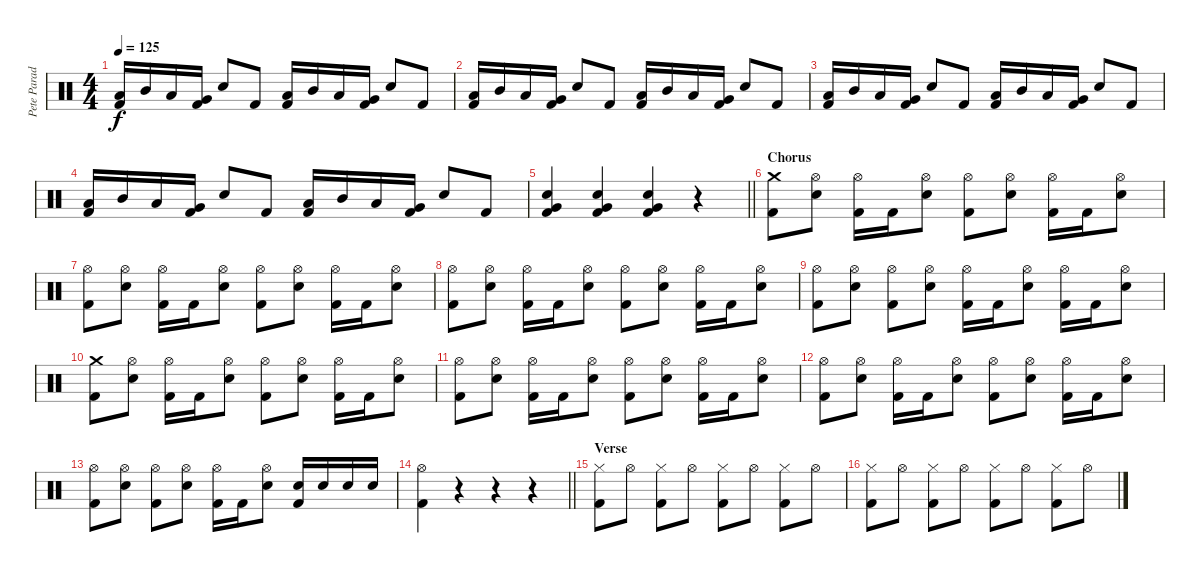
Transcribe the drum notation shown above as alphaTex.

\track ("Pete Parada - Drums" "Pete Parad") {instrument percussion}
\staff {score}
\articulation defaults
\ts (4 4)
\tempo 125
\clef neutral
\ks c
("Low Tom (hit)" "Kick (hit) 2").16{dy f} "Mid Tom (hit)".16 "Low Tom (hit)".16 ("Very Low Tom (hit)" "Kick (hit) 2").16 "Electric Snare (hit)".8 "Kick (hit) 2".8 ("Low Tom (hit)" "Kick (hit) 2").16 "Mid Tom (hit)".16 "Low Tom (hit)".16 ("Very Low Tom (hit)" "Kick (hit) 2").16 "Electric Snare (hit)".8 "Kick (hit) 2".8 |
("Low Tom (hit)" "Kick (hit) 2").16 "Mid Tom (hit)".16 "Low Tom (hit)".16 ("Very Low Tom (hit)" "Kick (hit) 2").16 "Electric Snare (hit)".8 "Kick (hit) 2".8 ("Low Tom (hit)" "Kick (hit) 2").16 "Mid Tom (hit)".16 "Low Tom (hit)".16 ("Very Low Tom (hit)" "Kick (hit) 2").16 "Electric Snare (hit)".8 "Kick (hit) 2".8 |
("Low Tom (hit)" "Kick (hit) 2").16 "Mid Tom (hit)".16 "Low Tom (hit)".16 ("Very Low Tom (hit)" "Kick (hit) 2").16 "Electric Snare (hit)".8 "Kick (hit) 2".8 ("Low Tom (hit)" "Kick (hit) 2").16 "Mid Tom (hit)".16 "Low Tom (hit)".16 ("Very Low Tom (hit)" "Kick (hit) 2").16 "Electric Snare (hit)".8 "Kick (hit) 2".8 |
("Low Tom (hit)" "Kick (hit) 2").16 "Mid Tom (hit)".16 "Low Tom (hit)".16 ("Very Low Tom (hit)" "Kick (hit) 2").16 "Electric Snare (hit)".8 "Kick (hit) 2".8 ("Low Tom (hit)" "Kick (hit) 2").16 "Mid Tom (hit)".16 "Low Tom (hit)".16 ("Very Low Tom (hit)" "Kick (hit) 2").16 "Electric Snare (hit)".8 "Kick (hit) 2".8 |
\barLineRight lightlight
("Electric Snare (hit)" "Very Low Tom (hit)" "Kick (hit) 2").4 ("Electric Snare (hit)" "Very Low Tom (hit)" "Kick (hit) 2").4 ("Electric Snare (hit)" "Very Low Tom (hit)" "Kick (hit) 2").4 r.4 |
\section ("" "Chorus")
("Crash medium (hit)" "Kick (hit) 2").8 ("Hi-Hat (open)" "Electric Snare (hit)").8 ("Hi-Hat (open)" "Kick (hit) 2").16 "Kick (hit) 2".16 ("Hi-Hat (open)" "Electric Snare (hit)").8 ("Hi-Hat (open)" "Kick (hit) 2").8 ("Hi-Hat (open)" "Electric Snare (hit)").8 ("Hi-Hat (open)" "Kick (hit) 2").16 "Kick (hit) 2".16 ("Hi-Hat (open)" "Electric Snare (hit)").8 |
("Hi-Hat (open)" "Kick (hit) 2").8 ("Hi-Hat (open)" "Electric Snare (hit)").8 ("Hi-Hat (open)" "Kick (hit) 2").16 "Kick (hit) 2".16 ("Hi-Hat (open)" "Electric Snare (hit)").8 ("Hi-Hat (open)" "Kick (hit) 2").8 ("Hi-Hat (open)" "Electric Snare (hit)").8 ("Hi-Hat (open)" "Kick (hit) 2").16 "Kick (hit) 2".16 ("Hi-Hat (open)" "Electric Snare (hit)").8 |
("Hi-Hat (open)" "Kick (hit) 2").8 ("Hi-Hat (open)" "Electric Snare (hit)").8 ("Hi-Hat (open)" "Kick (hit) 2").16 "Kick (hit) 2".16 ("Hi-Hat (open)" "Electric Snare (hit)").8 ("Hi-Hat (open)" "Kick (hit) 2").8 ("Hi-Hat (open)" "Electric Snare (hit)").8 ("Hi-Hat (open)" "Kick (hit) 2").16 "Kick (hit) 2".16 ("Hi-Hat (open)" "Electric Snare (hit)").8 |
("Hi-Hat (open)" "Kick (hit) 2").8 ("Hi-Hat (open)" "Electric Snare (hit)").8 ("Hi-Hat (open)" "Kick (hit) 2").8 ("Hi-Hat (open)" "Electric Snare (hit)").8 ("Hi-Hat (open)" "Kick (hit) 2").16 "Kick (hit) 2".16 ("Hi-Hat (open)" "Electric Snare (hit)").8 ("Hi-Hat (open)" "Kick (hit) 2").16 "Kick (hit) 2".16 ("Hi-Hat (open)" "Electric Snare (hit)").8 |
("Crash medium (hit)" "Kick (hit) 2").8 ("Hi-Hat (open)" "Electric Snare (hit)").8 ("Hi-Hat (open)" "Kick (hit) 2").16 "Kick (hit) 2".16 ("Hi-Hat (open)" "Electric Snare (hit)").8 ("Hi-Hat (open)" "Kick (hit) 2").8 ("Hi-Hat (open)" "Electric Snare (hit)").8 ("Hi-Hat (open)" "Kick (hit) 2").16 "Kick (hit) 2".16 ("Hi-Hat (open)" "Electric Snare (hit)").8 |
("Hi-Hat (open)" "Kick (hit) 2").8 ("Hi-Hat (open)" "Electric Snare (hit)").8 ("Hi-Hat (open)" "Kick (hit) 2").16 "Kick (hit) 2".16 ("Hi-Hat (open)" "Electric Snare (hit)").8 ("Hi-Hat (open)" "Kick (hit) 2").8 ("Hi-Hat (open)" "Electric Snare (hit)").8 ("Hi-Hat (open)" "Kick (hit) 2").16 "Kick (hit) 2".16 ("Hi-Hat (open)" "Electric Snare (hit)").8 |
("Hi-Hat (open)" "Kick (hit) 2").8 ("Hi-Hat (open)" "Electric Snare (hit)").8 ("Hi-Hat (open)" "Kick (hit) 2").16 "Kick (hit) 2".16 ("Hi-Hat (open)" "Electric Snare (hit)").8 ("Hi-Hat (open)" "Kick (hit) 2").8 ("Hi-Hat (open)" "Electric Snare (hit)").8 ("Hi-Hat (open)" "Kick (hit) 2").16 "Kick (hit) 2".16 ("Hi-Hat (open)" "Electric Snare (hit)").8 |
("Hi-Hat (open)" "Kick (hit) 2").8 ("Hi-Hat (open)" "Electric Snare (hit)").8 ("Hi-Hat (open)" "Kick (hit) 2").8 ("Hi-Hat (open)" "Electric Snare (hit)").8 ("Hi-Hat (open)" "Kick (hit) 2").16 "Kick (hit) 2".16 ("Hi-Hat (open)" "Electric Snare (hit)").8 ("Electric Snare (hit)" "Kick (hit) 2").16 "Electric Snare (hit)".16 "Electric Snare (hit)".16 "Electric Snare (hit)".16 |
\barLineRight lightlight
("Hi-Hat (open)" "Kick (hit) 2").4 r.4 r.4 r.4 |
\section ("" "Verse")
("Hi-Hat (closed)" "Kick (hit) 2").8 "Hi-Hat (open)".8 ("Hi-Hat (closed)" "Kick (hit) 2").8 "Hi-Hat (open)".8 ("Hi-Hat (closed)" "Kick (hit) 2").8 "Hi-Hat (open)".8 ("Hi-Hat (closed)" "Kick (hit) 2").8 "Hi-Hat (open)".8 |
("Hi-Hat (closed)" "Kick (hit) 2").8 "Hi-Hat (open)".8 ("Hi-Hat (closed)" "Kick (hit) 2").8 "Hi-Hat (open)".8 ("Hi-Hat (closed)" "Kick (hit) 2").8 "Hi-Hat (open)".8 ("Hi-Hat (closed)" "Kick (hit) 2").8 "Hi-Hat (open)".8
